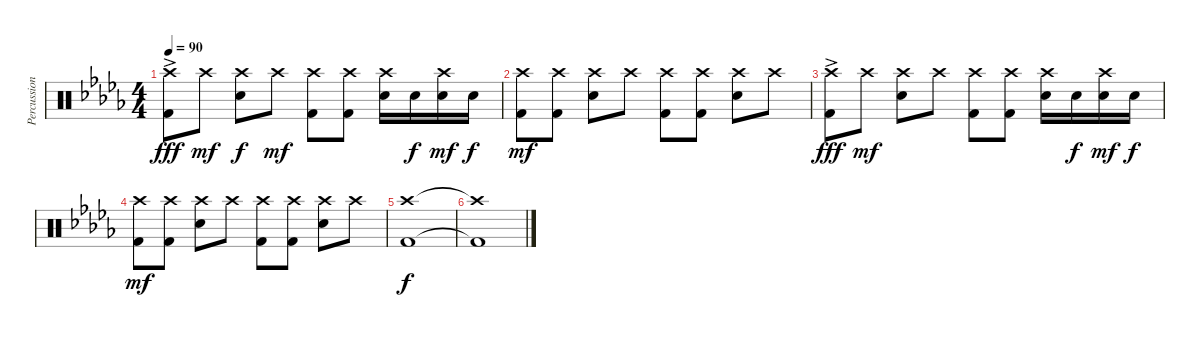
\track ("Percussion" "Percussion") {instrument percussion}
\staff {score}
\articulation defaults
\ts (4 4)
\tempo 90
\clef neutral
\ks db
("Crash high (hit)"{ac} "Kick (hit) 2").8{dy fff} "Crash high (hit)".8{dy mf} ("Crash high (hit)" "Snare (hit) 2").8{dy f} "Crash high (hit)".8{dy mf} ("Crash high (hit)" "Kick (hit) 2").8 ("Crash high (hit)" "Kick (hit) 2").8 ("Crash high (hit)" "Snare (hit) 2").16 "Snare (hit) 2".16{dy f} ("Crash high (hit)" "Snare (hit) 2").16{dy mf} "Snare (hit) 2".16{dy f} |
("Crash high (hit)" "Kick (hit) 2").8{dy mf} ("Crash high (hit)" "Kick (hit) 2").8 ("Crash high (hit)" "Snare (hit) 2").8 "Crash high (hit)".8 ("Crash high (hit)" "Kick (hit) 2").8 ("Crash high (hit)" "Kick (hit) 2").8 ("Crash high (hit)" "Snare (hit) 2").8 "Crash high (hit)".8 |
("Crash high (hit)"{ac} "Kick (hit) 2").8{dy fff} "Crash high (hit)".8{dy mf} ("Crash high (hit)" "Snare (hit) 2").8 "Crash high (hit)".8 ("Crash high (hit)" "Kick (hit) 2").8 ("Crash high (hit)" "Kick (hit) 2").8 ("Crash high (hit)" "Snare (hit) 2").16 "Snare (hit) 2".16{dy f} ("Crash high (hit)" "Snare (hit) 2").16{dy mf} "Snare (hit) 2".16{dy f} |
("Crash high (hit)" "Kick (hit) 2").8{dy mf} ("Crash high (hit)" "Kick (hit) 2").8 ("Crash high (hit)" "Snare (hit) 2").8 "Crash high (hit)".8 ("Crash high (hit)" "Kick (hit) 2").8 ("Crash high (hit)" "Kick (hit) 2").8 ("Crash high (hit)" "Snare (hit) 2").8 "Crash high (hit)".8 |
("Crash high (hit)" "Kick (hit) 2").1{dy f} |
("Crash high (hit)"{t} "Kick (hit) 2"{t}).1
